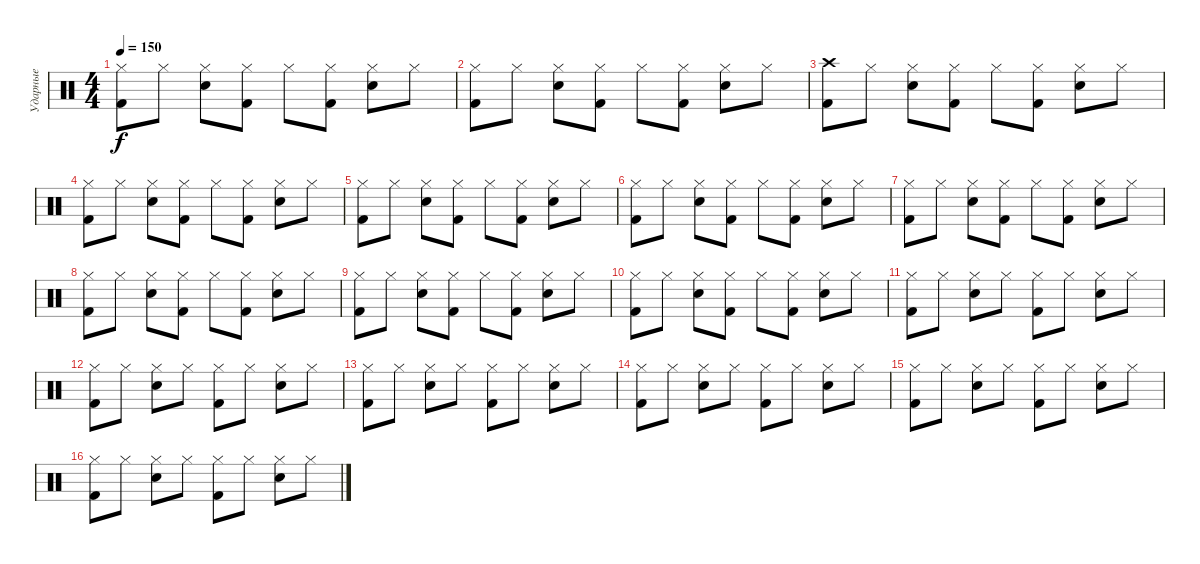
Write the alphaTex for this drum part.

\track ("Ударные" "Ударные") {instrument percussion}
\staff {score}
\articulation defaults
\ts (4 4)
\tempo 150
\clef neutral
\ks c
("Hi-Hat (closed)" "Kick (hit) 2").8{dy f} "Hi-Hat (closed)".8 ("Hi-Hat (closed)" "Snare (hit) 2").8 ("Hi-Hat (closed)" "Kick (hit) 2").8 "Hi-Hat (closed)".8 ("Hi-Hat (closed)" "Kick (hit) 2").8 ("Hi-Hat (closed)" "Snare (hit) 2").8 "Hi-Hat (closed)".8 |
("Hi-Hat (closed)" "Kick (hit) 2").8 "Hi-Hat (closed)".8 ("Hi-Hat (closed)" "Snare (hit) 2").8 ("Hi-Hat (closed)" "Kick (hit) 2").8 "Hi-Hat (closed)".8 ("Hi-Hat (closed)" "Kick (hit) 2").8 ("Hi-Hat (closed)" "Snare (hit) 2").8 "Hi-Hat (closed)".8 |
("Crash high (hit)" "Kick (hit) 2").8 "Hi-Hat (closed)".8 ("Hi-Hat (closed)" "Snare (hit) 2").8 ("Hi-Hat (closed)" "Kick (hit) 2").8 "Hi-Hat (closed)".8 ("Hi-Hat (closed)" "Kick (hit) 2").8 ("Hi-Hat (closed)" "Snare (hit) 2").8 "Hi-Hat (closed)".8 |
("Hi-Hat (closed)" "Kick (hit) 2").8 "Hi-Hat (closed)".8 ("Hi-Hat (closed)" "Snare (hit) 2").8 ("Hi-Hat (closed)" "Kick (hit) 2").8 "Hi-Hat (closed)".8 ("Hi-Hat (closed)" "Kick (hit) 2").8 ("Hi-Hat (closed)" "Snare (hit) 2").8 "Hi-Hat (closed)".8 |
("Hi-Hat (closed)" "Kick (hit) 2").8 "Hi-Hat (closed)".8 ("Hi-Hat (closed)" "Snare (hit) 2").8 ("Hi-Hat (closed)" "Kick (hit) 2").8 "Hi-Hat (closed)".8 ("Hi-Hat (closed)" "Kick (hit) 2").8 ("Hi-Hat (closed)" "Snare (hit) 2").8 "Hi-Hat (closed)".8 |
("Hi-Hat (closed)" "Kick (hit) 2").8 "Hi-Hat (closed)".8 ("Hi-Hat (closed)" "Snare (hit) 2").8 ("Hi-Hat (closed)" "Kick (hit) 2").8 "Hi-Hat (closed)".8 ("Hi-Hat (closed)" "Kick (hit) 2").8 ("Hi-Hat (closed)" "Snare (hit) 2").8 "Hi-Hat (closed)".8 |
("Hi-Hat (closed)" "Kick (hit) 2").8 "Hi-Hat (closed)".8 ("Hi-Hat (closed)" "Snare (hit) 2").8 ("Hi-Hat (closed)" "Kick (hit) 2").8 "Hi-Hat (closed)".8 ("Hi-Hat (closed)" "Kick (hit) 2").8 ("Hi-Hat (closed)" "Snare (hit) 2").8 "Hi-Hat (closed)".8 |
("Hi-Hat (closed)" "Kick (hit) 2").8 "Hi-Hat (closed)".8 ("Hi-Hat (closed)" "Snare (hit) 2").8 ("Hi-Hat (closed)" "Kick (hit) 2").8 "Hi-Hat (closed)".8 ("Hi-Hat (closed)" "Kick (hit) 2").8 ("Hi-Hat (closed)" "Snare (hit) 2").8 "Hi-Hat (closed)".8 |
("Hi-Hat (closed)" "Kick (hit) 2").8 "Hi-Hat (closed)".8 ("Hi-Hat (closed)" "Snare (hit) 2").8 ("Hi-Hat (closed)" "Kick (hit) 2").8 "Hi-Hat (closed)".8 ("Hi-Hat (closed)" "Kick (hit) 2").8 ("Hi-Hat (closed)" "Snare (hit) 2").8 "Hi-Hat (closed)".8 |
("Hi-Hat (closed)" "Kick (hit) 2").8 "Hi-Hat (closed)".8 ("Hi-Hat (closed)" "Snare (hit) 2").8 ("Hi-Hat (closed)" "Kick (hit) 2").8 "Hi-Hat (closed)".8 ("Hi-Hat (closed)" "Kick (hit) 2").8 ("Hi-Hat (closed)" "Snare (hit) 2").8 "Hi-Hat (closed)".8 |
("Hi-Hat (closed)" "Kick (hit) 2").8 "Hi-Hat (closed)".8 ("Hi-Hat (closed)" "Snare (hit) 2").8 "Hi-Hat (closed)".8 ("Hi-Hat (closed)" "Kick (hit) 2").8 "Hi-Hat (closed)".8 ("Hi-Hat (closed)" "Snare (hit) 2").8 "Hi-Hat (closed)".8 |
("Hi-Hat (closed)" "Kick (hit) 2").8 "Hi-Hat (closed)".8 ("Hi-Hat (closed)" "Snare (hit) 2").8 "Hi-Hat (closed)".8 ("Hi-Hat (closed)" "Kick (hit) 2").8 "Hi-Hat (closed)".8 ("Hi-Hat (closed)" "Snare (hit) 2").8 "Hi-Hat (closed)".8 |
("Hi-Hat (closed)" "Kick (hit) 2").8 "Hi-Hat (closed)".8 ("Hi-Hat (closed)" "Snare (hit) 2").8 "Hi-Hat (closed)".8 ("Hi-Hat (closed)" "Kick (hit) 2").8 "Hi-Hat (closed)".8 ("Hi-Hat (closed)" "Snare (hit) 2").8 "Hi-Hat (closed)".8 |
("Hi-Hat (closed)" "Kick (hit) 2").8 "Hi-Hat (closed)".8 ("Hi-Hat (closed)" "Snare (hit) 2").8 "Hi-Hat (closed)".8 ("Hi-Hat (closed)" "Kick (hit) 2").8 "Hi-Hat (closed)".8 ("Hi-Hat (closed)" "Snare (hit) 2").8 "Hi-Hat (closed)".8 |
("Hi-Hat (closed)" "Kick (hit) 2").8 "Hi-Hat (closed)".8 ("Hi-Hat (closed)" "Snare (hit) 2").8 "Hi-Hat (closed)".8 ("Hi-Hat (closed)" "Kick (hit) 2").8 "Hi-Hat (closed)".8 ("Hi-Hat (closed)" "Snare (hit) 2").8 "Hi-Hat (closed)".8 |
("Hi-Hat (closed)" "Kick (hit) 2").8 "Hi-Hat (closed)".8 ("Hi-Hat (closed)" "Snare (hit) 2").8 "Hi-Hat (closed)".8 ("Hi-Hat (closed)" "Kick (hit) 2").8 "Hi-Hat (closed)".8 ("Hi-Hat (closed)" "Snare (hit) 2").8 "Hi-Hat (closed)".8
